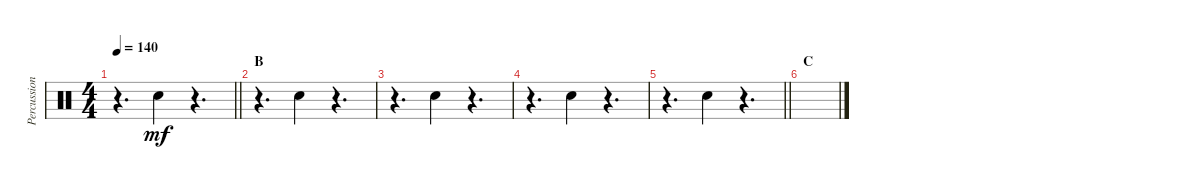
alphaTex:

\track ("Percussion" "Percussion") {instrument percussion}
\staff {score}
\articulation defaults
\ts (4 4)
\tempo 140
\clef neutral
\barLineRight lightlight
\ks c
r.4{d dy mf} "Hand Clap (hit)".4 r.4{d} |
\section ("" "B")
r.4{d} "Hand Clap (hit)".4 r.4{d} |
r.4{d} "Hand Clap (hit)".4 r.4{d} |
r.4{d} "Hand Clap (hit)".4 r.4{d} |
\barLineRight lightlight
r.4{d} "Hand Clap (hit)".4 r.4{d} |
\section ("" "C")
